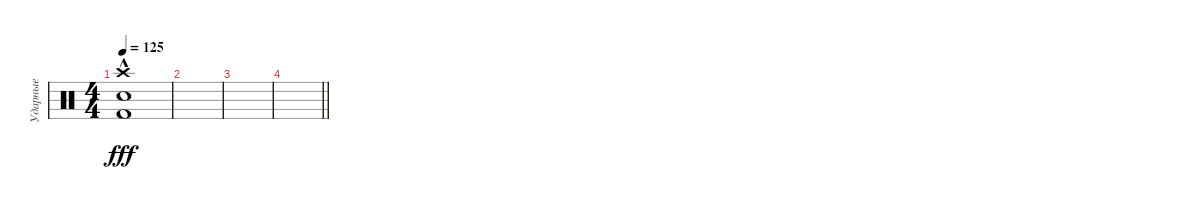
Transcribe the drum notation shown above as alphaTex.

\track ("Ударные" "Ударные") {instrument percussion}
\staff {score}
\articulation defaults
\ts (4 4)
\tempo 125
\clef neutral
\ks c
("Crash high (hit)" "Snare (hit) 2"{hac} "Kick (hit) 2").1{dy fff} |
|
|
\barLineRight lightlight
